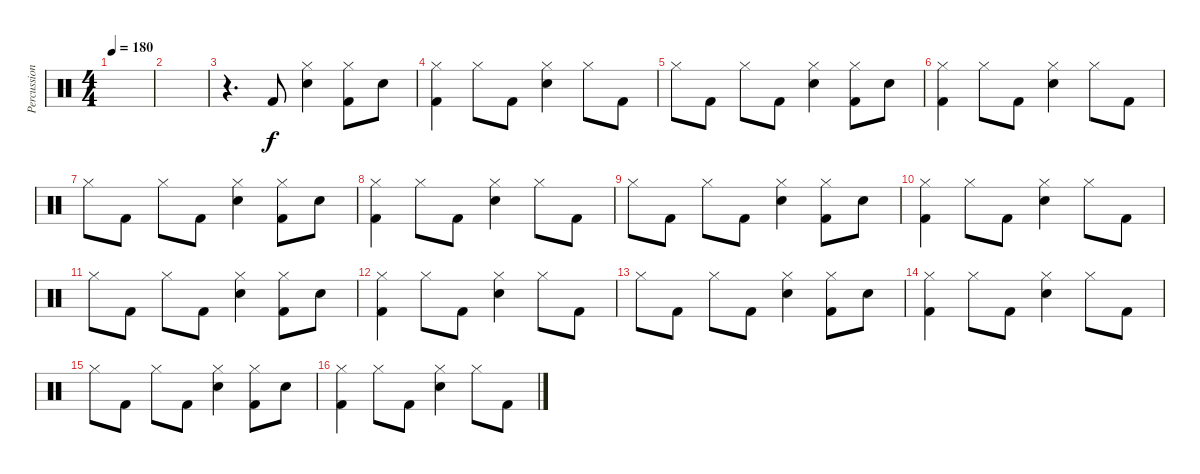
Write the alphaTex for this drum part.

\track ("Percussion" "Percussion") {instrument percussion}
\staff {score}
\articulation defaults
\ts (4 4)
\tempo 180
\clef neutral
\ks c
|
|
r.4{d} "Kick (hit) 2".8 ("Hi-Hat (closed)" "Snare (hit) 2").4 ("Hi-Hat (closed)" "Kick (hit) 2").8 "Snare (hit) 2".8 |
("Hi-Hat (closed)" "Kick (hit) 2").4 "Hi-Hat (closed)".8 "Kick (hit) 2".8 ("Hi-Hat (closed)" "Snare (hit) 2").4 "Hi-Hat (closed)".8 "Kick (hit) 2".8 |
"Hi-Hat (closed)".8 "Kick (hit) 2".8 "Hi-Hat (closed)".8 "Kick (hit) 2".8 ("Hi-Hat (closed)" "Snare (hit) 2").4 ("Hi-Hat (closed)" "Kick (hit) 2").8 "Snare (hit) 2".8 |
("Hi-Hat (closed)" "Kick (hit) 2").4 "Hi-Hat (closed)".8 "Kick (hit) 2".8 ("Hi-Hat (closed)" "Snare (hit) 2").4 "Hi-Hat (closed)".8 "Kick (hit) 2".8 |
"Hi-Hat (closed)".8 "Kick (hit) 2".8 "Hi-Hat (closed)".8 "Kick (hit) 2".8 ("Hi-Hat (closed)" "Snare (hit) 2").4 ("Hi-Hat (closed)" "Kick (hit) 2").8 "Snare (hit) 2".8 |
("Hi-Hat (closed)" "Kick (hit) 2").4 "Hi-Hat (closed)".8 "Kick (hit) 2".8 ("Hi-Hat (closed)" "Snare (hit) 2").4 "Hi-Hat (closed)".8 "Kick (hit) 2".8 |
"Hi-Hat (closed)".8 "Kick (hit) 2".8 "Hi-Hat (closed)".8 "Kick (hit) 2".8 ("Hi-Hat (closed)" "Snare (hit) 2").4 ("Hi-Hat (closed)" "Kick (hit) 2").8 "Snare (hit) 2".8 |
("Hi-Hat (closed)" "Kick (hit) 2").4 "Hi-Hat (closed)".8 "Kick (hit) 2".8 ("Hi-Hat (closed)" "Snare (hit) 2").4 "Hi-Hat (closed)".8 "Kick (hit) 2".8 |
"Hi-Hat (closed)".8 "Kick (hit) 2".8 "Hi-Hat (closed)".8 "Kick (hit) 2".8 ("Hi-Hat (closed)" "Snare (hit) 2").4 ("Hi-Hat (closed)" "Kick (hit) 2").8 "Snare (hit) 2".8 |
("Hi-Hat (closed)" "Kick (hit) 2").4 "Hi-Hat (closed)".8 "Kick (hit) 2".8 ("Hi-Hat (closed)" "Snare (hit) 2").4 "Hi-Hat (closed)".8 "Kick (hit) 2".8 |
"Hi-Hat (closed)".8 "Kick (hit) 2".8 "Hi-Hat (closed)".8 "Kick (hit) 2".8 ("Hi-Hat (closed)" "Snare (hit) 2").4 ("Hi-Hat (closed)" "Kick (hit) 2").8 "Snare (hit) 2".8 |
("Hi-Hat (closed)" "Kick (hit) 2").4 "Hi-Hat (closed)".8 "Kick (hit) 2".8 ("Hi-Hat (closed)" "Snare (hit) 2").4 "Hi-Hat (closed)".8 "Kick (hit) 2".8 |
"Hi-Hat (closed)".8 "Kick (hit) 2".8 "Hi-Hat (closed)".8 "Kick (hit) 2".8 ("Hi-Hat (closed)" "Snare (hit) 2").4 ("Hi-Hat (closed)" "Kick (hit) 2").8 "Snare (hit) 2".8 |
("Hi-Hat (closed)" "Kick (hit) 2").4 "Hi-Hat (closed)".8 "Kick (hit) 2".8 ("Hi-Hat (closed)" "Snare (hit) 2").4 "Hi-Hat (closed)".8 "Kick (hit) 2".8
